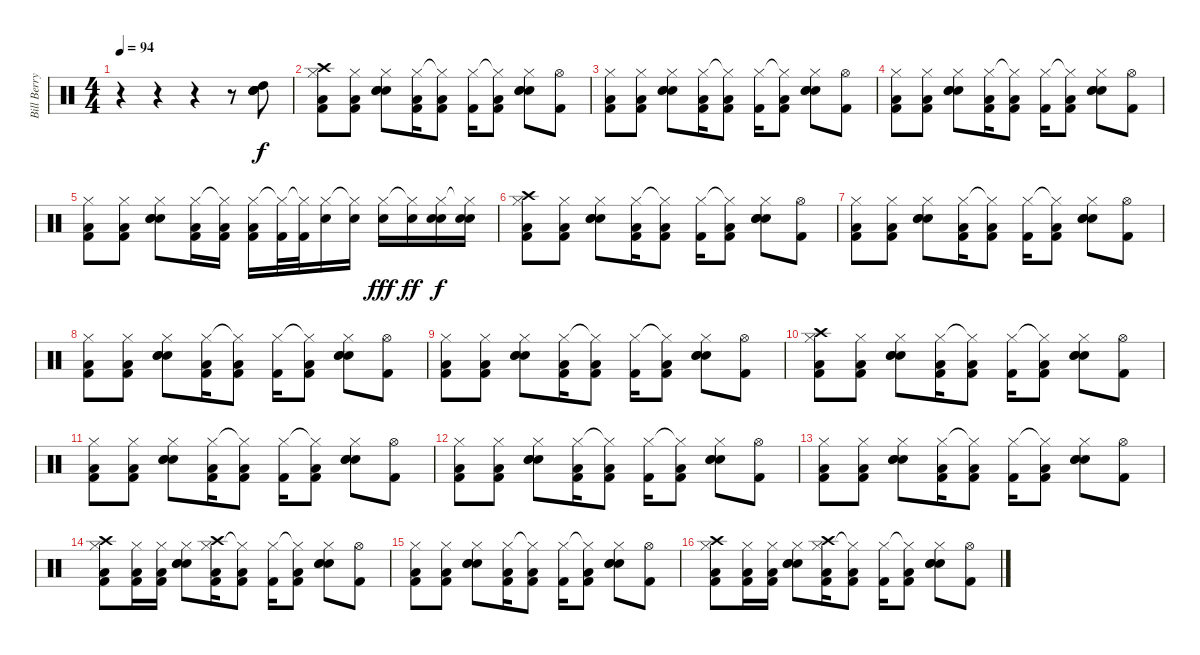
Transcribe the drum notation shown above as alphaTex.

\track ("Bill Berry - Drums" "Bill Berry") {instrument percussion}
\staff {score}
\articulation defaults
\ts (4 4)
\tempo 94
\clef neutral
\ks c
r.4{dy f} r.4 r.4 r.8 ("High Tom (hit)" "Electric Snare (hit)" "Snare (hit) 2" "Electric Snare (hit)").8 |
("Hi-Hat (closed)" "Kick (hit) 2" "Low Tom (hit)" "Crash high (hit)").8 ("Hi-Hat (closed)" "Kick (hit) 2" "Low Tom (hit)").8 ("Hi-Hat (closed)" "Electric Snare (hit)" "Snare (hit) 2" "Electric Snare (hit)").8 ("Hi-Hat (closed)" "Kick (hit) 2" "Low Tom (hit)").16 ("Hi-Hat (closed)"{t} "Kick (hit) 2" "Low Tom (hit)").8 ("Hi-Hat (closed)" "Kick (hit) 2").16 ("Hi-Hat (closed)"{t} "Kick (hit) 2" "Low Tom (hit)").8 ("Hi-Hat (closed)" "Electric Snare (hit)" "Snare (hit) 2" "Electric Snare (hit)").8 ("Hi-Hat (open)" "Kick (hit) 2").8 |
("Hi-Hat (closed)" "Kick (hit) 2" "Low Tom (hit)").8 ("Hi-Hat (closed)" "Kick (hit) 2" "Low Tom (hit)").8 ("Hi-Hat (closed)" "Electric Snare (hit)" "Snare (hit) 2" "Electric Snare (hit)").8 ("Hi-Hat (closed)" "Kick (hit) 2" "Low Tom (hit)").16 ("Hi-Hat (closed)"{t} "Kick (hit) 2" "Low Tom (hit)").8 ("Hi-Hat (closed)" "Kick (hit) 2").16 ("Hi-Hat (closed)"{t} "Kick (hit) 2" "Low Tom (hit)").8 ("Hi-Hat (closed)" "Electric Snare (hit)" "Snare (hit) 2" "Electric Snare (hit)").8 ("Hi-Hat (open)" "Kick (hit) 2").8 |
("Hi-Hat (closed)" "Kick (hit) 2" "Low Tom (hit)").8 ("Hi-Hat (closed)" "Kick (hit) 2" "Low Tom (hit)").8 ("Hi-Hat (closed)" "Electric Snare (hit)" "Snare (hit) 2" "Electric Snare (hit)").8 ("Hi-Hat (closed)" "Kick (hit) 2" "Low Tom (hit)").16 ("Hi-Hat (closed)"{t} "Kick (hit) 2" "Low Tom (hit)").8 ("Hi-Hat (closed)" "Kick (hit) 2").16 ("Hi-Hat (closed)"{t} "Kick (hit) 2" "Low Tom (hit)").8 ("Hi-Hat (closed)" "Electric Snare (hit)" "Snare (hit) 2" "Electric Snare (hit)").8 ("Hi-Hat (open)" "Kick (hit) 2").8 |
("Hi-Hat (closed)" "Kick (hit) 2" "Low Tom (hit)").8 ("Hi-Hat (closed)" "Kick (hit) 2" "Low Tom (hit)").8 ("Hi-Hat (closed)" "Electric Snare (hit)" "Snare (hit) 2" "Electric Snare (hit)").8 ("Hi-Hat (closed)" "Kick (hit) 2" "Low Tom (hit)").16 ("Hi-Hat (closed)"{t} "Kick (hit) 2" "Low Tom (hit)").16 ("Hi-Hat (closed)" "Kick (hit) 2" "Low Tom (hit)").16 ("Hi-Hat (closed)"{t} "Kick (hit) 2").32 ("Hi-Hat (closed)"{t} "Kick (hit) 2").32 ("Hi-Hat (closed)" "Electric Snare (hit)").16 ("Hi-Hat (closed)"{t} "Electric Snare (hit)").16 ("Hi-Hat (closed)" "Electric Snare (hit)").16{dy fff} ("Hi-Hat (closed)"{t} "Electric Snare (hit)").16{dy ff} ("Hi-Hat (closed)" "Electric Snare (hit)" "Snare (hit) 2").16{dy f} ("Hi-Hat (closed)"{t} "Electric Snare (hit)" "Snare (hit) 2").16 |
("Hi-Hat (closed)" "Kick (hit) 2" "Low Tom (hit)" "Crash high (hit)").8 ("Hi-Hat (closed)" "Kick (hit) 2" "Low Tom (hit)").8 ("Hi-Hat (closed)" "Electric Snare (hit)" "Snare (hit) 2" "Electric Snare (hit)").8 ("Hi-Hat (closed)" "Kick (hit) 2" "Low Tom (hit)").16 ("Hi-Hat (closed)"{t} "Kick (hit) 2" "Low Tom (hit)").8 ("Hi-Hat (closed)" "Kick (hit) 2").16 ("Hi-Hat (closed)"{t} "Kick (hit) 2" "Low Tom (hit)").8 ("Hi-Hat (closed)" "Electric Snare (hit)" "Snare (hit) 2" "Electric Snare (hit)").8 ("Hi-Hat (open)" "Kick (hit) 2").8 |
("Hi-Hat (closed)" "Kick (hit) 2" "Low Tom (hit)").8 ("Hi-Hat (closed)" "Kick (hit) 2" "Low Tom (hit)").8 ("Hi-Hat (closed)" "Electric Snare (hit)" "Snare (hit) 2" "Electric Snare (hit)").8 ("Hi-Hat (closed)" "Kick (hit) 2" "Low Tom (hit)").16 ("Hi-Hat (closed)"{t} "Kick (hit) 2" "Low Tom (hit)").8 ("Hi-Hat (closed)" "Kick (hit) 2").16 ("Hi-Hat (closed)"{t} "Kick (hit) 2" "Low Tom (hit)").8 ("Hi-Hat (closed)" "Electric Snare (hit)" "Snare (hit) 2" "Electric Snare (hit)").8 ("Hi-Hat (open)" "Kick (hit) 2").8 |
("Hi-Hat (closed)" "Kick (hit) 2" "Low Tom (hit)").8 ("Hi-Hat (closed)" "Kick (hit) 2" "Low Tom (hit)").8 ("Hi-Hat (closed)" "Electric Snare (hit)" "Snare (hit) 2" "Electric Snare (hit)").8 ("Hi-Hat (closed)" "Kick (hit) 2" "Low Tom (hit)").16 ("Hi-Hat (closed)"{t} "Kick (hit) 2" "Low Tom (hit)").8 ("Hi-Hat (closed)" "Kick (hit) 2").16 ("Hi-Hat (closed)"{t} "Kick (hit) 2" "Low Tom (hit)").8 ("Hi-Hat (closed)" "Electric Snare (hit)" "Snare (hit) 2" "Electric Snare (hit)").8 ("Hi-Hat (open)" "Kick (hit) 2").8 |
("Hi-Hat (closed)" "Kick (hit) 2" "Low Tom (hit)").8 ("Hi-Hat (closed)" "Kick (hit) 2" "Low Tom (hit)").8 ("Hi-Hat (closed)" "Electric Snare (hit)" "Snare (hit) 2" "Electric Snare (hit)").8 ("Hi-Hat (closed)" "Kick (hit) 2" "Low Tom (hit)").16 ("Hi-Hat (closed)"{t} "Kick (hit) 2" "Low Tom (hit)").8 ("Hi-Hat (closed)" "Kick (hit) 2").16 ("Hi-Hat (closed)"{t} "Kick (hit) 2" "Low Tom (hit)").8 ("Hi-Hat (closed)" "Electric Snare (hit)" "Snare (hit) 2" "Electric Snare (hit)").8 ("Hi-Hat (open)" "Kick (hit) 2").8 |
("Hi-Hat (closed)" "Kick (hit) 2" "Low Tom (hit)" "Crash high (hit)").8 ("Hi-Hat (closed)" "Kick (hit) 2" "Low Tom (hit)").8 ("Hi-Hat (closed)" "Electric Snare (hit)" "Snare (hit) 2" "Electric Snare (hit)").8 ("Hi-Hat (closed)" "Kick (hit) 2" "Low Tom (hit)").16 ("Hi-Hat (closed)"{t} "Kick (hit) 2" "Low Tom (hit)").8 ("Hi-Hat (closed)" "Kick (hit) 2").16 ("Hi-Hat (closed)"{t} "Kick (hit) 2" "Low Tom (hit)").8 ("Hi-Hat (closed)" "Electric Snare (hit)" "Snare (hit) 2" "Electric Snare (hit)").8 ("Hi-Hat (open)" "Kick (hit) 2").8 |
("Hi-Hat (closed)" "Kick (hit) 2" "Low Tom (hit)").8 ("Hi-Hat (closed)" "Kick (hit) 2" "Low Tom (hit)").8 ("Hi-Hat (closed)" "Electric Snare (hit)" "Snare (hit) 2" "Electric Snare (hit)").8 ("Hi-Hat (closed)" "Kick (hit) 2" "Low Tom (hit)").16 ("Hi-Hat (closed)"{t} "Kick (hit) 2" "Low Tom (hit)").8 ("Hi-Hat (closed)" "Kick (hit) 2").16 ("Hi-Hat (closed)"{t} "Kick (hit) 2" "Low Tom (hit)").8 ("Hi-Hat (closed)" "Electric Snare (hit)" "Snare (hit) 2" "Electric Snare (hit)").8 ("Hi-Hat (open)" "Kick (hit) 2").8 |
("Hi-Hat (closed)" "Kick (hit) 2" "Low Tom (hit)").8 ("Hi-Hat (closed)" "Kick (hit) 2" "Low Tom (hit)").8 ("Hi-Hat (closed)" "Electric Snare (hit)" "Snare (hit) 2" "Electric Snare (hit)").8 ("Hi-Hat (closed)" "Kick (hit) 2" "Low Tom (hit)").16 ("Hi-Hat (closed)"{t} "Kick (hit) 2" "Low Tom (hit)").8 ("Hi-Hat (closed)" "Kick (hit) 2").16 ("Hi-Hat (closed)"{t} "Kick (hit) 2" "Low Tom (hit)").8 ("Hi-Hat (closed)" "Electric Snare (hit)" "Snare (hit) 2" "Electric Snare (hit)").8 ("Hi-Hat (open)" "Kick (hit) 2").8 |
("Hi-Hat (closed)" "Kick (hit) 2" "Low Tom (hit)").8 ("Hi-Hat (closed)" "Kick (hit) 2" "Low Tom (hit)").8 ("Hi-Hat (closed)" "Electric Snare (hit)" "Snare (hit) 2" "Electric Snare (hit)").8 ("Hi-Hat (closed)" "Kick (hit) 2" "Low Tom (hit)").16 ("Hi-Hat (closed)"{t} "Kick (hit) 2" "Low Tom (hit)").8 ("Hi-Hat (closed)" "Kick (hit) 2").16 ("Hi-Hat (closed)"{t} "Kick (hit) 2" "Low Tom (hit)").8 ("Hi-Hat (closed)" "Electric Snare (hit)" "Snare (hit) 2" "Electric Snare (hit)").8 ("Hi-Hat (open)" "Kick (hit) 2").8 |
("Hi-Hat (closed)" "Kick (hit) 2" "Low Tom (hit)" "Crash high (hit)").8 ("Hi-Hat (closed)" "Kick (hit) 2" "Low Tom (hit)").16 ("Hi-Hat (closed)" "Kick (hit) 2" "Low Tom (hit)").16 ("Hi-Hat (closed)" "Electric Snare (hit)" "Snare (hit) 2" "Electric Snare (hit)").8 ("Hi-Hat (closed)" "Kick (hit) 2" "Low Tom (hit)" "Crash high (hit)").16 ("Hi-Hat (closed)"{t} "Kick (hit) 2" "Low Tom (hit)").8 ("Hi-Hat (closed)" "Kick (hit) 2").16 ("Hi-Hat (closed)"{t} "Kick (hit) 2" "Low Tom (hit)").8 ("Hi-Hat (closed)" "Electric Snare (hit)" "Snare (hit) 2" "Electric Snare (hit)").8 ("Hi-Hat (open)" "Kick (hit) 2").8 |
("Hi-Hat (closed)" "Kick (hit) 2" "Low Tom (hit)").8 ("Hi-Hat (closed)" "Kick (hit) 2" "Low Tom (hit)").8 ("Hi-Hat (closed)" "Electric Snare (hit)" "Snare (hit) 2" "Electric Snare (hit)").8 ("Hi-Hat (closed)" "Kick (hit) 2" "Low Tom (hit)").16 ("Hi-Hat (closed)"{t} "Kick (hit) 2" "Low Tom (hit)").8 ("Hi-Hat (closed)" "Kick (hit) 2").16 ("Hi-Hat (closed)"{t} "Kick (hit) 2" "Low Tom (hit)").8 ("Hi-Hat (closed)" "Electric Snare (hit)" "Snare (hit) 2" "Electric Snare (hit)").8 ("Hi-Hat (open)" "Kick (hit) 2").8 |
("Hi-Hat (closed)" "Kick (hit) 2" "Low Tom (hit)" "Crash high (hit)").8 ("Hi-Hat (closed)" "Kick (hit) 2" "Low Tom (hit)").16 ("Hi-Hat (closed)" "Kick (hit) 2" "Low Tom (hit)").16 ("Hi-Hat (closed)" "Electric Snare (hit)" "Snare (hit) 2" "Electric Snare (hit)").8 ("Hi-Hat (closed)" "Kick (hit) 2" "Low Tom (hit)" "Crash high (hit)").16 ("Hi-Hat (closed)"{t} "Kick (hit) 2" "Low Tom (hit)").8 ("Hi-Hat (closed)" "Kick (hit) 2").16 ("Hi-Hat (closed)"{t} "Kick (hit) 2" "Low Tom (hit)").8 ("Hi-Hat (closed)" "Electric Snare (hit)" "Snare (hit) 2" "Electric Snare (hit)").8 ("Hi-Hat (open)" "Kick (hit) 2").8
